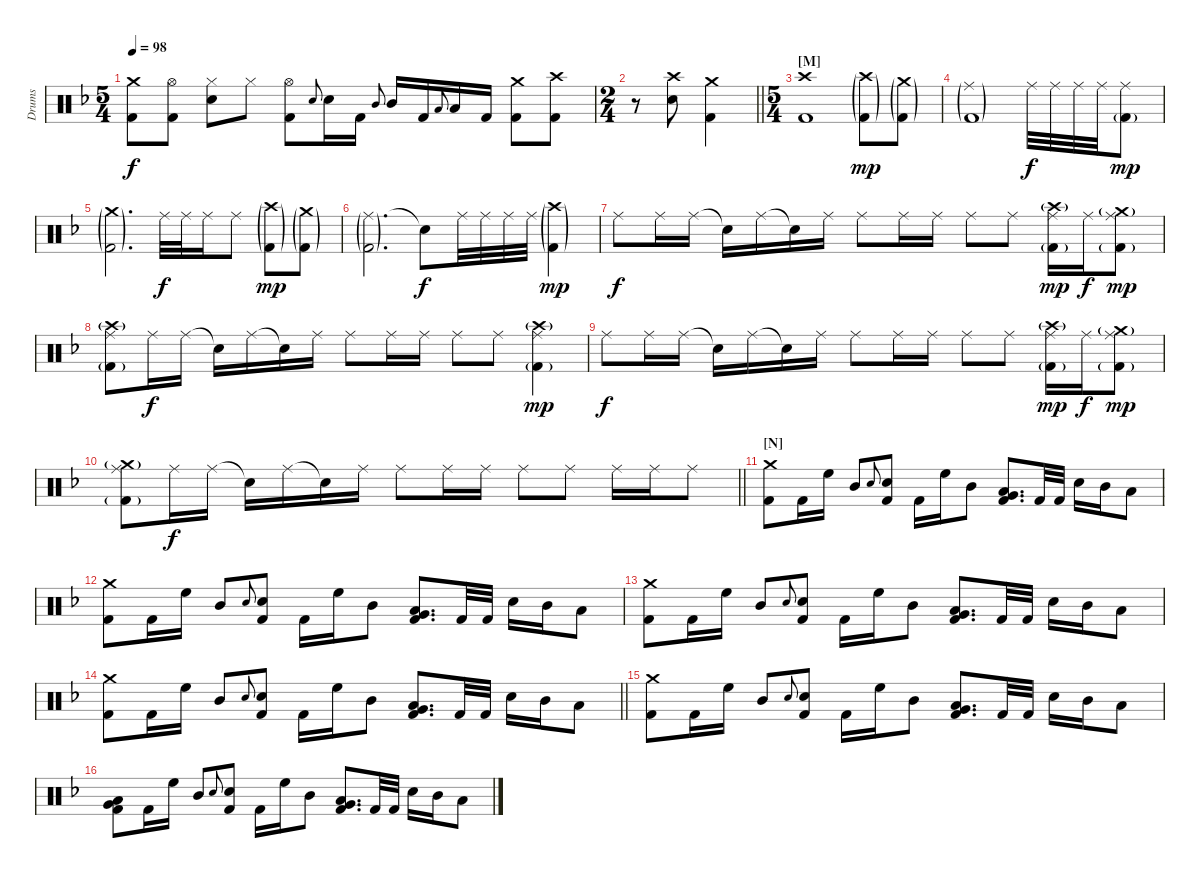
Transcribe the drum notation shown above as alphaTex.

\track ("Drums" "Drums") {instrument percussion}
\staff {score}
\articulation defaults
\ts (5 4)
\tempo 98
\clef neutral
\ks dminor
("Crash medium (hit)" "Kick (hit) 2").8{dy f} ("Hi-Hat (open)" "Kick (hit) 2").8 ("Hi-Hat (closed)" "Electric Snare (hit)").8 "Hi-Hat (closed)".8 ("Hi-Hat (open)" "Kick (hit) 2").8 "Electric Snare (hit)".8{gr onbeat} "Electric Snare (hit)".16 "Kick (hit) 2".16 "Mid Tom (hit)".8{gr onbeat} "Mid Tom (hit)".16 "Kick (hit) 2".16 "Low Tom (hit)".8{gr onbeat} "Low Tom (hit)".16 "Kick (hit) 2".16 ("Crash medium (hit)" "Kick (hit) 2").8 ("Crash high (hit)" "Kick (hit) 2").8 |
\ts (2 4)
\barLineRight lightlight
r.8 ("Crash high (hit)" "Electric Snare (hit)").8 ("Crash medium (hit)" "Kick (hit) 2").4 |
\ts (5 4)
\section ("" "[M]")
("Crash high (hit)" "Kick (hit) 2").1 ("Crash high (hit)"{g} "Kick (hit) 2"{g}).8{dy mp} ("Crash medium (hit)"{g} "Kick (hit) 2"{g}).8 |
("Ride (middle)"{g} "Kick (hit) 2"{g}).1 "Ride (middle)".32{dy f} "Ride (middle)".32 "Ride (middle)".32 "Ride (middle)".32 ("Ride (middle)" "Kick (hit) 2"{g}).8{dy mp} |
("Crash medium (hit)"{g} "Kick (hit) 2"{g}).2{d} "Ride (middle)".32{dy f} "Ride (middle)".32 "Ride (middle)".16 "Ride (middle)".8 ("Crash high (hit)"{g} "Kick (hit) 2"{g}).8{dy mp} ("Crash medium (hit)"{g} "Kick (hit) 2"{g}).8 |
("Ride (middle)"{g} "Kick (hit) 2"{g}).2{d} "Snare (hit)"{t}.8{dy f} "Ride (middle)".32 "Ride (middle)".32 "Ride (middle)".32 "Ride (middle)".32 ("Crash high (hit)"{g} "Kick (hit) 2"{g}).4{dy mp} |
"Ride (middle)".8{dy f} "Ride (middle)".16 "Ride (middle)".16 "Snare (hit)"{t}.16 "Ride (middle)".16 "Snare (hit)"{t}.16 "Ride (middle)".16 "Ride (middle)".8 "Ride (middle)".16 "Ride (middle)".16 "Ride (middle)".8 "Ride (middle)".8 ("Crash high (hit)"{g} "Ride (middle)" "Kick (hit) 2"{g}).16{dy mp} "Ride (middle)".16{dy f} ("Crash medium (hit)"{g} "Ride (middle)" "Kick (hit) 2"{g}).8{dy mp} |
("Crash high (hit)"{g} "Ride (middle)" "Kick (hit) 2"{g}).8 "Ride (middle)".16{dy f} "Ride (middle)".16 "Snare (hit)"{t}.16 "Ride (middle)".16 "Snare (hit)"{t}.16 "Ride (middle)".16 "Ride (middle)".8 "Ride (middle)".16 "Ride (middle)".16 "Ride (middle)".8 "Ride (middle)".8 ("Crash high (hit)"{g} "Ride (middle)" "Kick (hit) 2"{g}).4{dy mp} |
"Ride (middle)".8{dy f} "Ride (middle)".16 "Ride (middle)".16 "Snare (hit)"{t}.16 "Ride (middle)".16 "Snare (hit)"{t}.16 "Ride (middle)".16 "Ride (middle)".8 "Ride (middle)".16 "Ride (middle)".16 "Ride (middle)".8 "Ride (middle)".8 ("Crash high (hit)"{g} "Ride (middle)" "Kick (hit) 2"{g}).16{dy mp} "Ride (middle)".16{dy f} ("Crash medium (hit)"{g} "Ride (middle)" "Kick (hit) 2"{g}).8{dy mp} |
\barLineRight lightlight
("Crash medium (hit)"{g} "Ride (middle)" "Kick (hit) 2"{g}).8 "Ride (middle)".16{dy f} "Ride (middle)".16 "Snare (hit)"{t}.16 "Ride (middle)".16 "Snare (hit)"{t}.16 "Ride (middle)".16 "Ride (middle)".8 "Ride (middle)".16 "Ride (middle)".16 "Ride (middle)".8 "Ride (middle)".8 "Ride (middle)".16 "Ride (middle)".16 "Ride (middle)".8 |
\section ("" "[N]")
("Crash medium (hit)" "Kick (hit) 2").8 "Kick (hit) 2".16 "High Floor Tom (hit)".16 "Mid Tom (hit)".8 "Electric Snare (hit)".8{gr onbeat} ("Electric Snare (hit)" "Kick (hit) 2").8 "Kick (hit) 2".16 "High Floor Tom (hit)".16 "Mid Tom (hit)".8 ("Low Tom (hit)" "Very Low Tom (hit)" "Kick (hit) 2").8{d} "Kick (hit) 2".32 "Kick (hit) 2".32 "Electric Snare (hit)".16 "Mid Tom (hit)".16 "Low Tom (hit)".8 |
("Crash medium (hit)" "Kick (hit) 2").8 "Kick (hit) 2".16 "High Floor Tom (hit)".16 "Mid Tom (hit)".8 "Electric Snare (hit)".8{gr onbeat} ("Electric Snare (hit)" "Kick (hit) 2").8 "Kick (hit) 2".16 "High Floor Tom (hit)".16 "Mid Tom (hit)".8 ("Low Tom (hit)" "Very Low Tom (hit)" "Kick (hit) 2").8{d} "Kick (hit) 2".32 "Kick (hit) 2".32 "Electric Snare (hit)".16 "Mid Tom (hit)".16 "Low Tom (hit)".8 |
("Crash medium (hit)" "Kick (hit) 2").8 "Kick (hit) 2".16 "High Floor Tom (hit)".16 "Mid Tom (hit)".8 "Electric Snare (hit)".8{gr onbeat} ("Electric Snare (hit)" "Kick (hit) 2").8 "Kick (hit) 2".16 "High Floor Tom (hit)".16 "Mid Tom (hit)".8 ("Low Tom (hit)" "Very Low Tom (hit)" "Kick (hit) 2").8{d} "Kick (hit) 2".32 "Kick (hit) 2".32 "Electric Snare (hit)".16 "Mid Tom (hit)".16 "Low Tom (hit)".8 |
\barLineRight lightlight
("Crash medium (hit)" "Kick (hit) 2").8 "Kick (hit) 2".16 "High Floor Tom (hit)".16 "Mid Tom (hit)".8 "Electric Snare (hit)".8{gr onbeat} ("Electric Snare (hit)" "Kick (hit) 2").8 "Kick (hit) 2".16 "High Floor Tom (hit)".16 "Mid Tom (hit)".8 ("Low Tom (hit)" "Very Low Tom (hit)" "Kick (hit) 2").8{d} "Kick (hit) 2".32 "Kick (hit) 2".32 "Electric Snare (hit)".16 "Mid Tom (hit)".16 "Low Tom (hit)".8 |
("Crash medium (hit)" "Kick (hit) 2").8 "Kick (hit) 2".16 "High Floor Tom (hit)".16 "Mid Tom (hit)".8 "Electric Snare (hit)".8{gr onbeat} ("Electric Snare (hit)" "Kick (hit) 2").8 "Kick (hit) 2".16 "High Floor Tom (hit)".16 "Mid Tom (hit)".8 ("Low Tom (hit)" "Very Low Tom (hit)" "Kick (hit) 2").8{d} "Kick (hit) 2".32 "Kick (hit) 2".32 "Electric Snare (hit)".16 "Mid Tom (hit)".16 "Low Tom (hit)".8 |
("Low Tom (hit)" "Very Low Tom (hit)" "Kick (hit) 2").8 "Kick (hit) 2".16 "High Floor Tom (hit)".16 "Mid Tom (hit)".8 "Electric Snare (hit)".8{gr onbeat} ("Electric Snare (hit)" "Kick (hit) 2").8 "Kick (hit) 2".16 "High Floor Tom (hit)".16 "Mid Tom (hit)".8 ("Low Tom (hit)" "Very Low Tom (hit)" "Kick (hit) 2").8{d} "Kick (hit) 2".32 "Kick (hit) 2".32 "Electric Snare (hit)".16 "Mid Tom (hit)".16 "Low Tom (hit)".8
